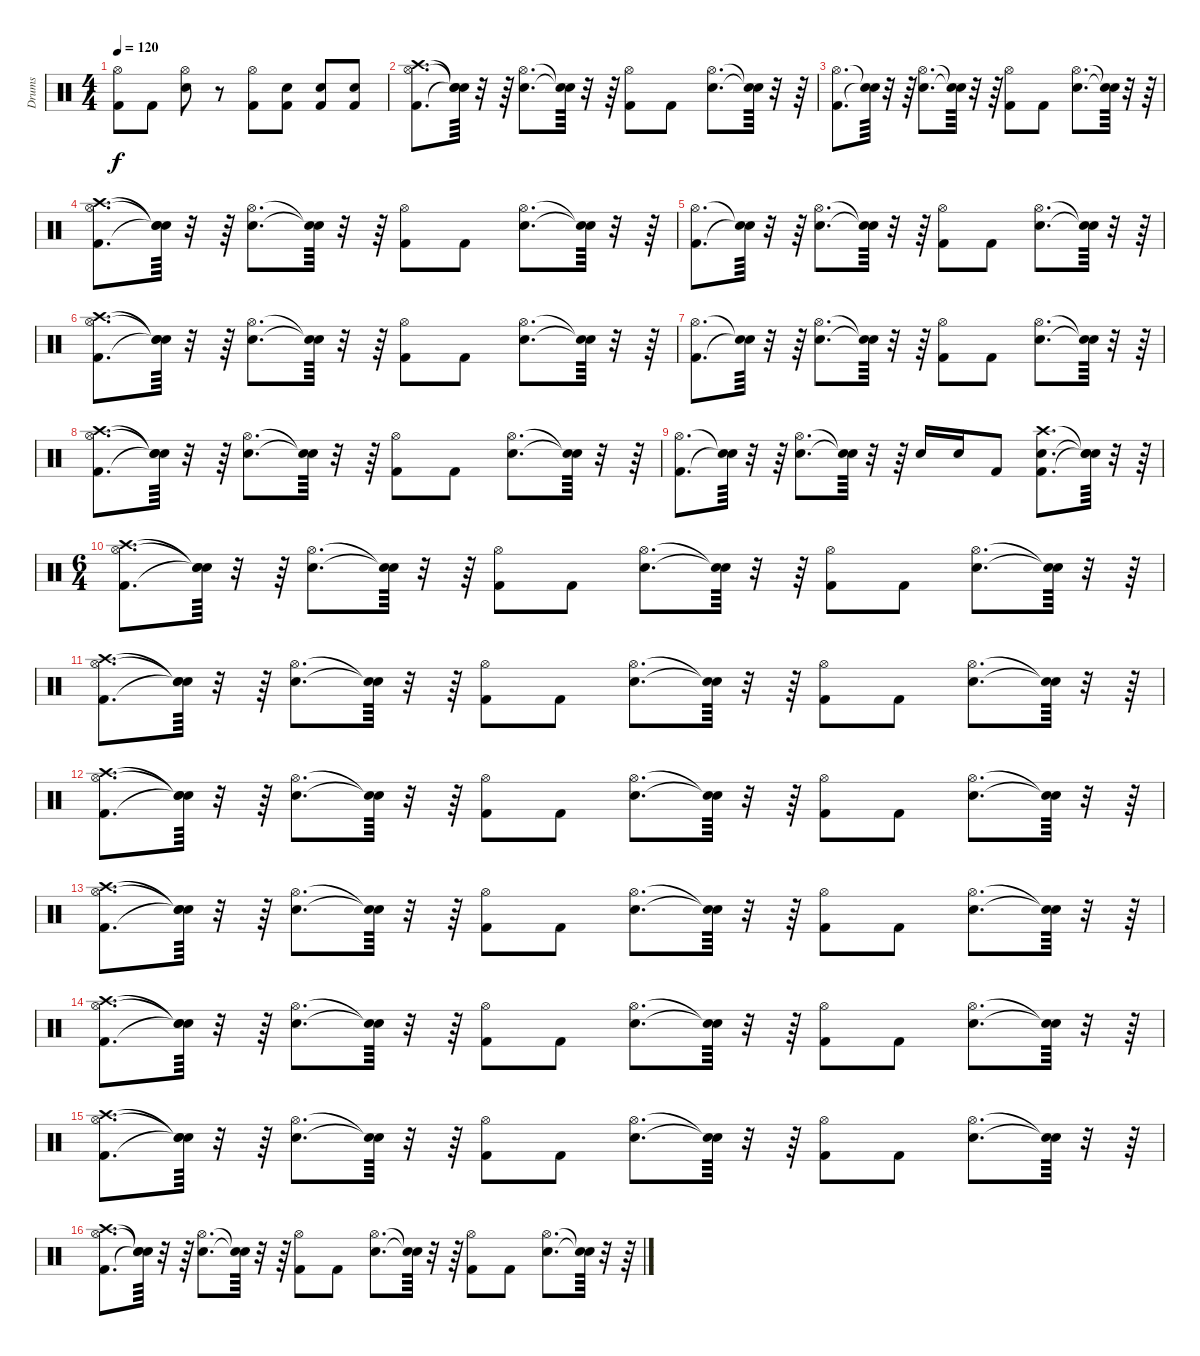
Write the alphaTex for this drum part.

\track ("Drums" "Drums") {instrument percussion}
\staff {score}
\articulation defaults
\ts (4 4)
\tempo 120
\clef neutral
\ks c
("Kick (hit) 2" "Hi-Hat (open)").8{dy f} "Kick (hit) 2".8 ("Snare (hit) 2" "Hi-Hat (open)").8 r.8 ("Kick (hit) 2" "Hi-Hat (open)").8 ("Kick (hit) 2" "Snare (hit) 2").8 ("Kick (hit) 2" "Snare (hit) 2").8 ("Kick (hit) 2" "Snare (hit) 2").8 |
("Kick (hit) 2" "Hi-Hat (open)" "Crash high (hit)").8{d} ("Snare (hit)"{t} "Snare (hit)"{t} "Snare (hit)"{t}).64 r.32 r.64 ("Snare (hit) 2" "Hi-Hat (open)").8{d} ("Snare (hit)"{t} "Snare (hit)"{t}).64 r.32 r.64 ("Kick (hit) 2" "Hi-Hat (open)").8 "Kick (hit) 2".8 ("Snare (hit) 2" "Hi-Hat (open)").8{d} ("Snare (hit)"{t} "Snare (hit)"{t}).64 r.32 r.64 |
("Kick (hit) 2" "Hi-Hat (open)").8{d} ("Snare (hit)"{t} "Snare (hit)"{t}).64 r.32 r.64 ("Snare (hit) 2" "Hi-Hat (open)").8{d} ("Snare (hit)"{t} "Snare (hit)"{t}).64 r.32 r.64 ("Kick (hit) 2" "Hi-Hat (open)").8 "Kick (hit) 2".8 ("Snare (hit) 2" "Hi-Hat (open)").8{d} ("Snare (hit)"{t} "Snare (hit)"{t}).64 r.32 r.64 |
("Kick (hit) 2" "Hi-Hat (open)" "Crash high (hit)").8{d} ("Snare (hit)"{t} "Snare (hit)"{t} "Snare (hit)"{t}).64 r.32 r.64 ("Snare (hit) 2" "Hi-Hat (open)").8{d} ("Snare (hit)"{t} "Snare (hit)"{t}).64 r.32 r.64 ("Kick (hit) 2" "Hi-Hat (open)").8 "Kick (hit) 2".8 ("Snare (hit) 2" "Hi-Hat (open)").8{d} ("Snare (hit)"{t} "Snare (hit)"{t}).64 r.32 r.64 |
("Kick (hit) 2" "Hi-Hat (open)").8{d} ("Snare (hit)"{t} "Snare (hit)"{t}).64 r.32 r.64 ("Snare (hit) 2" "Hi-Hat (open)").8{d} ("Snare (hit)"{t} "Snare (hit)"{t}).64 r.32 r.64 ("Kick (hit) 2" "Hi-Hat (open)").8 "Kick (hit) 2".8 ("Snare (hit) 2" "Hi-Hat (open)").8{d} ("Snare (hit)"{t} "Snare (hit)"{t}).64 r.32 r.64 |
("Kick (hit) 2" "Hi-Hat (open)" "Crash high (hit)").8{d} ("Snare (hit)"{t} "Snare (hit)"{t} "Snare (hit)"{t}).64 r.32 r.64 ("Snare (hit) 2" "Hi-Hat (open)").8{d} ("Snare (hit)"{t} "Snare (hit)"{t}).64 r.32 r.64 ("Kick (hit) 2" "Hi-Hat (open)").8 "Kick (hit) 2".8 ("Snare (hit) 2" "Hi-Hat (open)").8{d} ("Snare (hit)"{t} "Snare (hit)"{t}).64 r.32 r.64 |
("Kick (hit) 2" "Hi-Hat (open)").8{d} ("Snare (hit)"{t} "Snare (hit)"{t}).64 r.32 r.64 ("Snare (hit) 2" "Hi-Hat (open)").8{d} ("Snare (hit)"{t} "Snare (hit)"{t}).64 r.32 r.64 ("Kick (hit) 2" "Hi-Hat (open)").8 "Kick (hit) 2".8 ("Snare (hit) 2" "Hi-Hat (open)").8{d} ("Snare (hit)"{t} "Snare (hit)"{t}).64 r.32 r.64 |
("Kick (hit) 2" "Hi-Hat (open)" "Crash high (hit)").8{d} ("Snare (hit)"{t} "Snare (hit)"{t} "Snare (hit)"{t}).64 r.32 r.64 ("Snare (hit) 2" "Hi-Hat (open)").8{d} ("Snare (hit)"{t} "Snare (hit)"{t}).64 r.32 r.64 ("Kick (hit) 2" "Hi-Hat (open)").8 "Kick (hit) 2".8 ("Snare (hit) 2" "Hi-Hat (open)").8{d} ("Snare (hit)"{t} "Snare (hit)"{t}).64 r.32 r.64 |
("Kick (hit) 2" "Hi-Hat (open)").8{d} ("Snare (hit)"{t} "Snare (hit)"{t}).64 r.32 r.64 ("Snare (hit) 2" "Hi-Hat (open)").8{d} ("Snare (hit)"{t} "Snare (hit)"{t}).64 r.32 r.64 "Snare (hit) 2".16 "Snare (hit) 2".16 "Kick (hit) 2".8 ("Kick (hit) 2" "Snare (hit) 2" "Crash high (hit)").8{d} ("Snare (hit)"{t} "Snare (hit)"{t} "Snare (hit)"{t}).64 r.32 r.64 |
\ts (6 4)
("Kick (hit) 2" "Hi-Hat (open)" "Crash high (hit)").8{d} ("Snare (hit)"{t} "Snare (hit)"{t} "Snare (hit)"{t}).64 r.32 r.64 ("Snare (hit) 2" "Hi-Hat (open)").8{d} ("Snare (hit)"{t} "Snare (hit)"{t}).64 r.32 r.64 ("Kick (hit) 2" "Hi-Hat (open)").8 "Kick (hit) 2".8 ("Snare (hit) 2" "Hi-Hat (open)").8{d} ("Snare (hit)"{t} "Snare (hit)"{t}).64 r.32 r.64 ("Kick (hit) 2" "Hi-Hat (open)").8 "Kick (hit) 2".8 ("Snare (hit) 2" "Hi-Hat (open)").8{d} ("Snare (hit)"{t} "Snare (hit)"{t}).64 r.32 r.64 |
("Kick (hit) 2" "Hi-Hat (open)" "Crash high (hit)").8{d} ("Snare (hit)"{t} "Snare (hit)"{t} "Snare (hit)"{t}).64 r.32 r.64 ("Snare (hit) 2" "Hi-Hat (open)").8{d} ("Snare (hit)"{t} "Snare (hit)"{t}).64 r.32 r.64 ("Kick (hit) 2" "Hi-Hat (open)").8 "Kick (hit) 2".8 ("Snare (hit) 2" "Hi-Hat (open)").8{d} ("Snare (hit)"{t} "Snare (hit)"{t}).64 r.32 r.64 ("Kick (hit) 2" "Hi-Hat (open)").8 "Kick (hit) 2".8 ("Snare (hit) 2" "Hi-Hat (open)").8{d} ("Snare (hit)"{t} "Snare (hit)"{t}).64 r.32 r.64 |
("Kick (hit) 2" "Hi-Hat (open)" "Crash high (hit)").8{d} ("Snare (hit)"{t} "Snare (hit)"{t} "Snare (hit)"{t}).64 r.32 r.64 ("Snare (hit) 2" "Hi-Hat (open)").8{d} ("Snare (hit)"{t} "Snare (hit)"{t}).64 r.32 r.64 ("Kick (hit) 2" "Hi-Hat (open)").8 "Kick (hit) 2".8 ("Snare (hit) 2" "Hi-Hat (open)").8{d} ("Snare (hit)"{t} "Snare (hit)"{t}).64 r.32 r.64 ("Kick (hit) 2" "Hi-Hat (open)").8 "Kick (hit) 2".8 ("Snare (hit) 2" "Hi-Hat (open)").8{d} ("Snare (hit)"{t} "Snare (hit)"{t}).64 r.32 r.64 |
("Kick (hit) 2" "Hi-Hat (open)" "Crash high (hit)").8{d} ("Snare (hit)"{t} "Snare (hit)"{t} "Snare (hit)"{t}).64 r.32 r.64 ("Snare (hit) 2" "Hi-Hat (open)").8{d} ("Snare (hit)"{t} "Snare (hit)"{t}).64 r.32 r.64 ("Kick (hit) 2" "Hi-Hat (open)").8 "Kick (hit) 2".8 ("Snare (hit) 2" "Hi-Hat (open)").8{d} ("Snare (hit)"{t} "Snare (hit)"{t}).64 r.32 r.64 ("Kick (hit) 2" "Hi-Hat (open)").8 "Kick (hit) 2".8 ("Snare (hit) 2" "Hi-Hat (open)").8{d} ("Snare (hit)"{t} "Snare (hit)"{t}).64 r.32 r.64 |
("Kick (hit) 2" "Hi-Hat (open)" "Crash high (hit)").8{d} ("Snare (hit)"{t} "Snare (hit)"{t} "Snare (hit)"{t}).64 r.32 r.64 ("Snare (hit) 2" "Hi-Hat (open)").8{d} ("Snare (hit)"{t} "Snare (hit)"{t}).64 r.32 r.64 ("Kick (hit) 2" "Hi-Hat (open)").8 "Kick (hit) 2".8 ("Snare (hit) 2" "Hi-Hat (open)").8{d} ("Snare (hit)"{t} "Snare (hit)"{t}).64 r.32 r.64 ("Kick (hit) 2" "Hi-Hat (open)").8 "Kick (hit) 2".8 ("Snare (hit) 2" "Hi-Hat (open)").8{d} ("Snare (hit)"{t} "Snare (hit)"{t}).64 r.32 r.64 |
("Kick (hit) 2" "Hi-Hat (open)" "Crash high (hit)").8{d} ("Snare (hit)"{t} "Snare (hit)"{t} "Snare (hit)"{t}).64 r.32 r.64 ("Snare (hit) 2" "Hi-Hat (open)").8{d} ("Snare (hit)"{t} "Snare (hit)"{t}).64 r.32 r.64 ("Kick (hit) 2" "Hi-Hat (open)").8 "Kick (hit) 2".8 ("Snare (hit) 2" "Hi-Hat (open)").8{d} ("Snare (hit)"{t} "Snare (hit)"{t}).64 r.32 r.64 ("Kick (hit) 2" "Hi-Hat (open)").8 "Kick (hit) 2".8 ("Snare (hit) 2" "Hi-Hat (open)").8{d} ("Snare (hit)"{t} "Snare (hit)"{t}).64 r.32 r.64 |
("Kick (hit) 2" "Hi-Hat (open)" "Crash high (hit)").8{d} ("Snare (hit)"{t} "Snare (hit)"{t} "Snare (hit)"{t}).64 r.32 r.64 ("Snare (hit) 2" "Hi-Hat (open)").8{d} ("Snare (hit)"{t} "Snare (hit)"{t}).64 r.32 r.64 ("Kick (hit) 2" "Hi-Hat (open)").8 "Kick (hit) 2".8 ("Snare (hit) 2" "Hi-Hat (open)").8{d} ("Snare (hit)"{t} "Snare (hit)"{t}).64 r.32 r.64 ("Kick (hit) 2" "Hi-Hat (open)").8 "Kick (hit) 2".8 ("Snare (hit) 2" "Hi-Hat (open)").8{d} ("Snare (hit)"{t} "Snare (hit)"{t}).64 r.32 r.64
